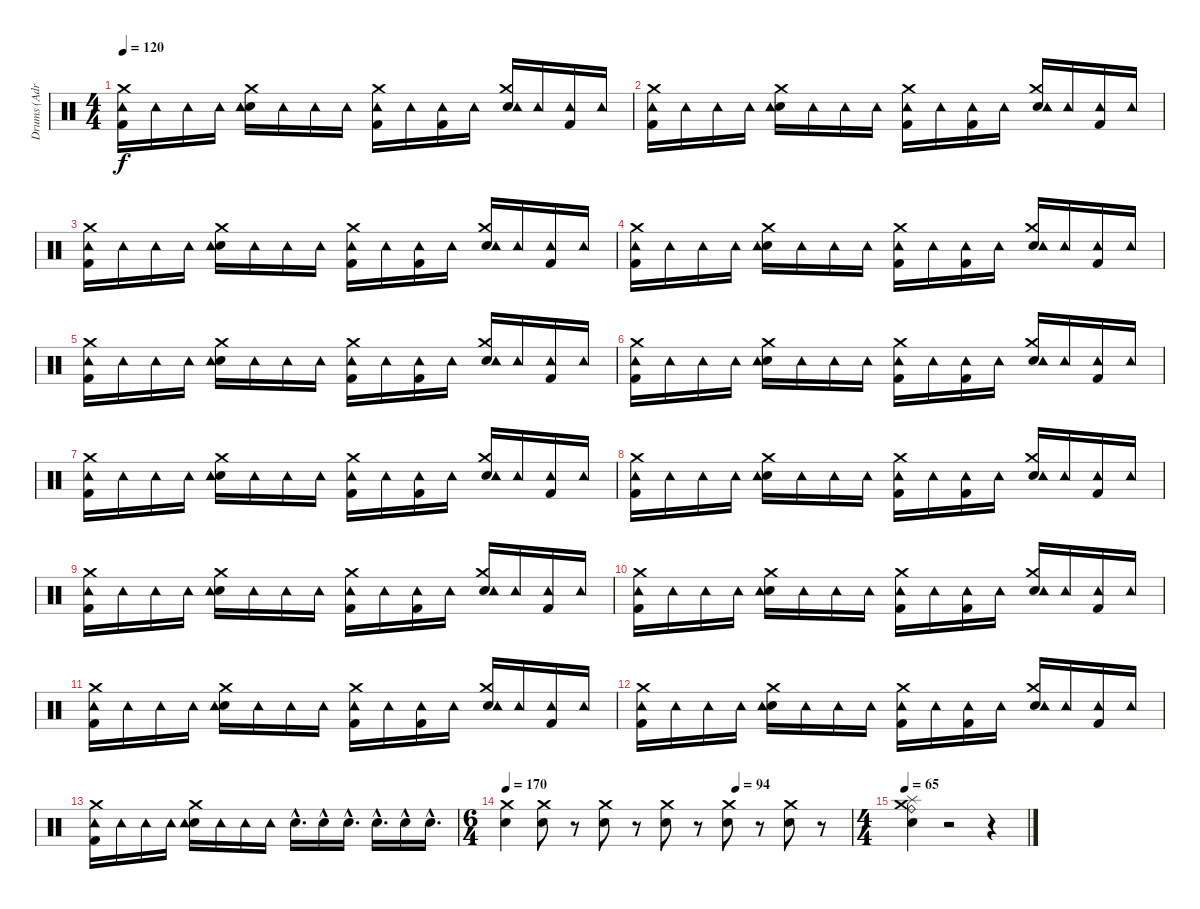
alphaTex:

\track ("Drums (Adrian Young)" "Drums (Adr") {instrument percussion}
\staff {score}
\articulation defaults
\ts (4 4)
\tempo 120
\clef neutral
\ks c
("Kick (hit) 2" "Tambourine (hit)" "Crash medium (hit)").16{dy f} "Tambourine (hit)".16 "Tambourine (hit)".16 "Tambourine (hit)".16 ("Snare (hit) 2" "Tambourine (hit)" "Crash medium (hit)").16 "Tambourine (hit)".16 "Tambourine (hit)".16 "Tambourine (hit)".16 ("Kick (hit) 2" "Tambourine (hit)" "Crash medium (hit)").16 "Tambourine (hit)".16 ("Kick (hit) 2" "Tambourine (hit)").16 "Tambourine (hit)".16 ("Snare (hit) 2" "Tambourine (hit)" "Crash medium (hit)").16 "Tambourine (hit)".16 ("Kick (hit) 2" "Tambourine (hit)").16 "Tambourine (hit)".16 |
("Kick (hit) 2" "Tambourine (hit)" "Crash medium (hit)").16 "Tambourine (hit)".16 "Tambourine (hit)".16 "Tambourine (hit)".16 ("Snare (hit) 2" "Tambourine (hit)" "Crash medium (hit)").16 "Tambourine (hit)".16 "Tambourine (hit)".16 "Tambourine (hit)".16 ("Kick (hit) 2" "Tambourine (hit)" "Crash medium (hit)").16 "Tambourine (hit)".16 ("Kick (hit) 2" "Tambourine (hit)").16 "Tambourine (hit)".16 ("Snare (hit) 2" "Tambourine (hit)" "Crash medium (hit)").16 "Tambourine (hit)".16 ("Kick (hit) 2" "Tambourine (hit)").16 "Tambourine (hit)".16 |
("Kick (hit) 2" "Tambourine (hit)" "Crash medium (hit)").16 "Tambourine (hit)".16 "Tambourine (hit)".16 "Tambourine (hit)".16 ("Snare (hit) 2" "Tambourine (hit)" "Crash medium (hit)").16 "Tambourine (hit)".16 "Tambourine (hit)".16 "Tambourine (hit)".16 ("Kick (hit) 2" "Tambourine (hit)" "Crash medium (hit)").16 "Tambourine (hit)".16 ("Kick (hit) 2" "Tambourine (hit)").16 "Tambourine (hit)".16 ("Snare (hit) 2" "Tambourine (hit)" "Crash medium (hit)").16 "Tambourine (hit)".16 ("Kick (hit) 2" "Tambourine (hit)").16 "Tambourine (hit)".16 |
("Kick (hit) 2" "Tambourine (hit)" "Crash medium (hit)").16 "Tambourine (hit)".16 "Tambourine (hit)".16 "Tambourine (hit)".16 ("Snare (hit) 2" "Tambourine (hit)" "Crash medium (hit)").16 "Tambourine (hit)".16 "Tambourine (hit)".16 "Tambourine (hit)".16 ("Kick (hit) 2" "Tambourine (hit)" "Crash medium (hit)").16 "Tambourine (hit)".16 ("Kick (hit) 2" "Tambourine (hit)").16 "Tambourine (hit)".16 ("Snare (hit) 2" "Tambourine (hit)" "Crash medium (hit)").16 "Tambourine (hit)".16 ("Kick (hit) 2" "Tambourine (hit)").16 "Tambourine (hit)".16 |
("Kick (hit) 2" "Tambourine (hit)" "Crash medium (hit)").16 "Tambourine (hit)".16 "Tambourine (hit)".16 "Tambourine (hit)".16 ("Snare (hit) 2" "Tambourine (hit)" "Crash medium (hit)").16 "Tambourine (hit)".16 "Tambourine (hit)".16 "Tambourine (hit)".16 ("Kick (hit) 2" "Tambourine (hit)" "Crash medium (hit)").16 "Tambourine (hit)".16 ("Kick (hit) 2" "Tambourine (hit)").16 "Tambourine (hit)".16 ("Snare (hit) 2" "Tambourine (hit)" "Crash medium (hit)").16 "Tambourine (hit)".16 ("Kick (hit) 2" "Tambourine (hit)").16 "Tambourine (hit)".16 |
("Kick (hit) 2" "Tambourine (hit)" "Crash medium (hit)").16 "Tambourine (hit)".16 "Tambourine (hit)".16 "Tambourine (hit)".16 ("Snare (hit) 2" "Tambourine (hit)" "Crash medium (hit)").16 "Tambourine (hit)".16 "Tambourine (hit)".16 "Tambourine (hit)".16 ("Kick (hit) 2" "Tambourine (hit)" "Crash medium (hit)").16 "Tambourine (hit)".16 ("Kick (hit) 2" "Tambourine (hit)").16 "Tambourine (hit)".16 ("Snare (hit) 2" "Tambourine (hit)" "Crash medium (hit)").16 "Tambourine (hit)".16 ("Kick (hit) 2" "Tambourine (hit)").16 "Tambourine (hit)".16 |
("Kick (hit) 2" "Tambourine (hit)" "Crash medium (hit)").16 "Tambourine (hit)".16 "Tambourine (hit)".16 "Tambourine (hit)".16 ("Snare (hit) 2" "Tambourine (hit)" "Crash medium (hit)").16 "Tambourine (hit)".16 "Tambourine (hit)".16 "Tambourine (hit)".16 ("Kick (hit) 2" "Tambourine (hit)" "Crash medium (hit)").16 "Tambourine (hit)".16 ("Kick (hit) 2" "Tambourine (hit)").16 "Tambourine (hit)".16 ("Snare (hit) 2" "Tambourine (hit)" "Crash medium (hit)").16 "Tambourine (hit)".16 ("Kick (hit) 2" "Tambourine (hit)").16 "Tambourine (hit)".16 |
("Kick (hit) 2" "Tambourine (hit)" "Crash medium (hit)").16 "Tambourine (hit)".16 "Tambourine (hit)".16 "Tambourine (hit)".16 ("Snare (hit) 2" "Tambourine (hit)" "Crash medium (hit)").16 "Tambourine (hit)".16 "Tambourine (hit)".16 "Tambourine (hit)".16 ("Kick (hit) 2" "Tambourine (hit)" "Crash medium (hit)").16 "Tambourine (hit)".16 ("Kick (hit) 2" "Tambourine (hit)").16 "Tambourine (hit)".16 ("Snare (hit) 2" "Tambourine (hit)" "Crash medium (hit)").16 "Tambourine (hit)".16 ("Kick (hit) 2" "Tambourine (hit)").16 "Tambourine (hit)".16 |
("Kick (hit) 2" "Tambourine (hit)" "Crash medium (hit)").16 "Tambourine (hit)".16 "Tambourine (hit)".16 "Tambourine (hit)".16 ("Snare (hit) 2" "Tambourine (hit)" "Crash medium (hit)").16 "Tambourine (hit)".16 "Tambourine (hit)".16 "Tambourine (hit)".16 ("Kick (hit) 2" "Tambourine (hit)" "Crash medium (hit)").16 "Tambourine (hit)".16 ("Kick (hit) 2" "Tambourine (hit)").16 "Tambourine (hit)".16 ("Snare (hit) 2" "Tambourine (hit)" "Crash medium (hit)").16 "Tambourine (hit)".16 ("Kick (hit) 2" "Tambourine (hit)").16 "Tambourine (hit)".16 |
("Kick (hit) 2" "Tambourine (hit)" "Crash medium (hit)").16 "Tambourine (hit)".16 "Tambourine (hit)".16 "Tambourine (hit)".16 ("Snare (hit) 2" "Tambourine (hit)" "Crash medium (hit)").16 "Tambourine (hit)".16 "Tambourine (hit)".16 "Tambourine (hit)".16 ("Kick (hit) 2" "Tambourine (hit)" "Crash medium (hit)").16 "Tambourine (hit)".16 ("Kick (hit) 2" "Tambourine (hit)").16 "Tambourine (hit)".16 ("Snare (hit) 2" "Tambourine (hit)" "Crash medium (hit)").16 "Tambourine (hit)".16 ("Kick (hit) 2" "Tambourine (hit)").16 "Tambourine (hit)".16 |
("Kick (hit) 2" "Tambourine (hit)" "Crash medium (hit)").16 "Tambourine (hit)".16 "Tambourine (hit)".16 "Tambourine (hit)".16 ("Snare (hit) 2" "Tambourine (hit)" "Crash medium (hit)").16 "Tambourine (hit)".16 "Tambourine (hit)".16 "Tambourine (hit)".16 ("Kick (hit) 2" "Tambourine (hit)" "Crash medium (hit)").16 "Tambourine (hit)".16 ("Kick (hit) 2" "Tambourine (hit)").16 "Tambourine (hit)".16 ("Snare (hit) 2" "Tambourine (hit)" "Crash medium (hit)").16 "Tambourine (hit)".16 ("Kick (hit) 2" "Tambourine (hit)").16 "Tambourine (hit)".16 |
("Kick (hit) 2" "Tambourine (hit)" "Crash medium (hit)").16 "Tambourine (hit)".16 "Tambourine (hit)".16 "Tambourine (hit)".16 ("Snare (hit) 2" "Tambourine (hit)" "Crash medium (hit)").16 "Tambourine (hit)".16 "Tambourine (hit)".16 "Tambourine (hit)".16 ("Kick (hit) 2" "Tambourine (hit)" "Crash medium (hit)").16 "Tambourine (hit)".16 ("Kick (hit) 2" "Tambourine (hit)").16 "Tambourine (hit)".16 ("Snare (hit) 2" "Tambourine (hit)" "Crash medium (hit)").16 "Tambourine (hit)".16 ("Kick (hit) 2" "Tambourine (hit)").16 "Tambourine (hit)".16 |
("Kick (hit) 2" "Tambourine (hit)" "Crash medium (hit)").16 "Tambourine (hit)".16 "Tambourine (hit)".16 "Tambourine (hit)".16 ("Snare (hit) 2" "Tambourine (hit)" "Crash medium (hit)").16 "Tambourine (hit)".16 "Tambourine (hit)".16 "Tambourine (hit)".16 "Snare (hit) 2"{hac}.16{d} "Snare (hit) 2"{hac}.16 "Snare (hit) 2"{hac}.16{d} "Snare (hit) 2"{hac}.16{d} "Snare (hit) 2"{hac}.16 "Snare (hit) 2"{hac}.16{d} |
\ts (6 4)
\tempo 170
\tempo (94 0.6666666666666666)
("Crash medium (hit)" "Snare (hit) 2").4 ("Crash medium (hit)" "Snare (hit) 2").8 r.8 ("Crash medium (hit)" "Snare (hit) 2").8 r.8 ("Crash medium (hit)" "Snare (hit) 2").8 r.8 ("Crash medium (hit)" "Snare (hit) 2").8 r.8 ("Crash medium (hit)" "Snare (hit) 2").8 r.8 |
\ts (4 4)
\tempo 65
("Crash medium (hit)" "Snare (hit) 2" "Splash (hit)" "Ride (bell)").4 r.2 r.4
